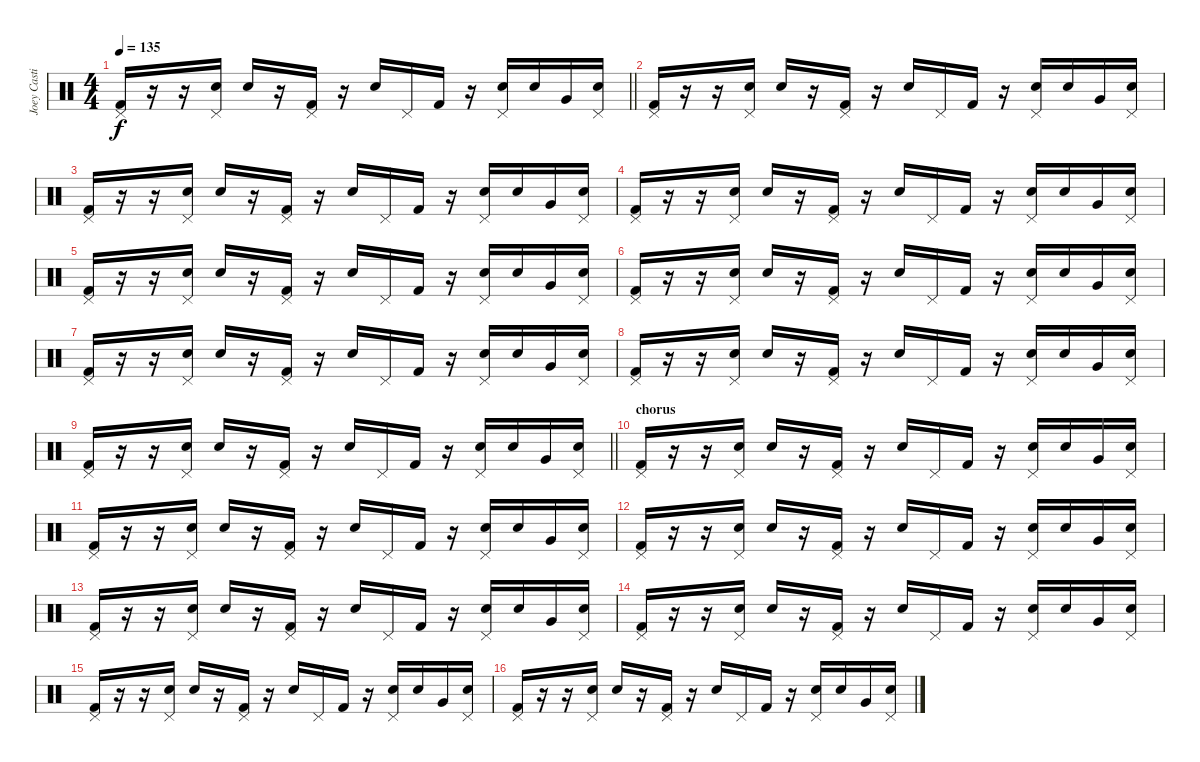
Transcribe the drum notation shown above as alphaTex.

\track ("Joey Castillo" "Joey Casti") {instrument percussion}
\staff {score}
\articulation defaults
\ts (4 4)
\tempo 135
\clef neutral
\barLineRight lightlight
\ks c
("Kick (hit) 2" "Pedal Hi-Hat (hit)").16{dy f} r.16 r.16 ("Electric Snare (hit)" "Pedal Hi-Hat (hit)").16 "Electric Snare (hit)".16 r.16 ("Kick (hit) 2" "Pedal Hi-Hat (hit)").16 r.16 "Electric Snare (hit)".16 "Pedal Hi-Hat (hit)".16 "Kick (hit) 2".16 r.16 ("Electric Snare (hit)" "Pedal Hi-Hat (hit)").16 "Electric Snare (hit)".16 "Very Low Tom (hit)".16 ("Electric Snare (hit)" "Pedal Hi-Hat (hit)").16 |
("Kick (hit) 2" "Pedal Hi-Hat (hit)").16 r.16 r.16 ("Electric Snare (hit)" "Pedal Hi-Hat (hit)").16 "Electric Snare (hit)".16 r.16 ("Kick (hit) 2" "Pedal Hi-Hat (hit)").16 r.16 "Electric Snare (hit)".16 "Pedal Hi-Hat (hit)".16 "Kick (hit) 2".16 r.16 ("Electric Snare (hit)" "Pedal Hi-Hat (hit)").16 "Electric Snare (hit)".16 "Very Low Tom (hit)".16 ("Electric Snare (hit)" "Pedal Hi-Hat (hit)").16 |
("Kick (hit) 2" "Pedal Hi-Hat (hit)").16 r.16 r.16 ("Electric Snare (hit)" "Pedal Hi-Hat (hit)").16 "Electric Snare (hit)".16 r.16 ("Kick (hit) 2" "Pedal Hi-Hat (hit)").16 r.16 "Electric Snare (hit)".16 "Pedal Hi-Hat (hit)".16 "Kick (hit) 2".16 r.16 ("Electric Snare (hit)" "Pedal Hi-Hat (hit)").16 "Electric Snare (hit)".16 "Very Low Tom (hit)".16 ("Electric Snare (hit)" "Pedal Hi-Hat (hit)").16 |
("Kick (hit) 2" "Pedal Hi-Hat (hit)").16 r.16 r.16 ("Electric Snare (hit)" "Pedal Hi-Hat (hit)").16 "Electric Snare (hit)".16 r.16 ("Kick (hit) 2" "Pedal Hi-Hat (hit)").16 r.16 "Electric Snare (hit)".16 "Pedal Hi-Hat (hit)".16 "Kick (hit) 2".16 r.16 ("Electric Snare (hit)" "Pedal Hi-Hat (hit)").16 "Electric Snare (hit)".16 "Very Low Tom (hit)".16 ("Electric Snare (hit)" "Pedal Hi-Hat (hit)").16 |
("Kick (hit) 2" "Pedal Hi-Hat (hit)").16 r.16 r.16 ("Electric Snare (hit)" "Pedal Hi-Hat (hit)").16 "Electric Snare (hit)".16 r.16 ("Kick (hit) 2" "Pedal Hi-Hat (hit)").16 r.16 "Electric Snare (hit)".16 "Pedal Hi-Hat (hit)".16 "Kick (hit) 2".16 r.16 ("Electric Snare (hit)" "Pedal Hi-Hat (hit)").16 "Electric Snare (hit)".16 "Very Low Tom (hit)".16 ("Electric Snare (hit)" "Pedal Hi-Hat (hit)").16 |
("Kick (hit) 2" "Pedal Hi-Hat (hit)").16 r.16 r.16 ("Electric Snare (hit)" "Pedal Hi-Hat (hit)").16 "Electric Snare (hit)".16 r.16 ("Kick (hit) 2" "Pedal Hi-Hat (hit)").16 r.16 "Electric Snare (hit)".16 "Pedal Hi-Hat (hit)".16 "Kick (hit) 2".16 r.16 ("Electric Snare (hit)" "Pedal Hi-Hat (hit)").16 "Electric Snare (hit)".16 "Very Low Tom (hit)".16 ("Electric Snare (hit)" "Pedal Hi-Hat (hit)").16 |
("Kick (hit) 2" "Pedal Hi-Hat (hit)").16 r.16 r.16 ("Electric Snare (hit)" "Pedal Hi-Hat (hit)").16 "Electric Snare (hit)".16 r.16 ("Kick (hit) 2" "Pedal Hi-Hat (hit)").16 r.16 "Electric Snare (hit)".16 "Pedal Hi-Hat (hit)".16 "Kick (hit) 2".16 r.16 ("Electric Snare (hit)" "Pedal Hi-Hat (hit)").16 "Electric Snare (hit)".16 "Very Low Tom (hit)".16 ("Electric Snare (hit)" "Pedal Hi-Hat (hit)").16 |
("Kick (hit) 2" "Pedal Hi-Hat (hit)").16 r.16 r.16 ("Electric Snare (hit)" "Pedal Hi-Hat (hit)").16 "Electric Snare (hit)".16 r.16 ("Kick (hit) 2" "Pedal Hi-Hat (hit)").16 r.16 "Electric Snare (hit)".16 "Pedal Hi-Hat (hit)".16 "Kick (hit) 2".16 r.16 ("Electric Snare (hit)" "Pedal Hi-Hat (hit)").16 "Electric Snare (hit)".16 "Very Low Tom (hit)".16 ("Electric Snare (hit)" "Pedal Hi-Hat (hit)").16 |
\barLineRight lightlight
("Kick (hit) 2" "Pedal Hi-Hat (hit)").16 r.16 r.16 ("Electric Snare (hit)" "Pedal Hi-Hat (hit)").16 "Electric Snare (hit)".16 r.16 ("Kick (hit) 2" "Pedal Hi-Hat (hit)").16 r.16 "Electric Snare (hit)".16 "Pedal Hi-Hat (hit)".16 "Kick (hit) 2".16 r.16 ("Electric Snare (hit)" "Pedal Hi-Hat (hit)").16 "Electric Snare (hit)".16 "Very Low Tom (hit)".16 ("Electric Snare (hit)" "Pedal Hi-Hat (hit)").16 |
\section ("" "chorus")
("Kick (hit) 2" "Pedal Hi-Hat (hit)").16 r.16 r.16 ("Electric Snare (hit)" "Pedal Hi-Hat (hit)").16 "Electric Snare (hit)".16 r.16 ("Kick (hit) 2" "Pedal Hi-Hat (hit)").16 r.16 "Electric Snare (hit)".16 "Pedal Hi-Hat (hit)".16 "Kick (hit) 2".16 r.16 ("Electric Snare (hit)" "Pedal Hi-Hat (hit)").16 "Electric Snare (hit)".16 "Very Low Tom (hit)".16 ("Electric Snare (hit)" "Pedal Hi-Hat (hit)").16 |
("Kick (hit) 2" "Pedal Hi-Hat (hit)").16 r.16 r.16 ("Electric Snare (hit)" "Pedal Hi-Hat (hit)").16 "Electric Snare (hit)".16 r.16 ("Kick (hit) 2" "Pedal Hi-Hat (hit)").16 r.16 "Electric Snare (hit)".16 "Pedal Hi-Hat (hit)".16 "Kick (hit) 2".16 r.16 ("Electric Snare (hit)" "Pedal Hi-Hat (hit)").16 "Electric Snare (hit)".16 "Very Low Tom (hit)".16 ("Electric Snare (hit)" "Pedal Hi-Hat (hit)").16 |
("Kick (hit) 2" "Pedal Hi-Hat (hit)").16 r.16 r.16 ("Electric Snare (hit)" "Pedal Hi-Hat (hit)").16 "Electric Snare (hit)".16 r.16 ("Kick (hit) 2" "Pedal Hi-Hat (hit)").16 r.16 "Electric Snare (hit)".16 "Pedal Hi-Hat (hit)".16 "Kick (hit) 2".16 r.16 ("Electric Snare (hit)" "Pedal Hi-Hat (hit)").16 "Electric Snare (hit)".16 "Very Low Tom (hit)".16 ("Electric Snare (hit)" "Pedal Hi-Hat (hit)").16 |
("Kick (hit) 2" "Pedal Hi-Hat (hit)").16 r.16 r.16 ("Electric Snare (hit)" "Pedal Hi-Hat (hit)").16 "Electric Snare (hit)".16 r.16 ("Kick (hit) 2" "Pedal Hi-Hat (hit)").16 r.16 "Electric Snare (hit)".16 "Pedal Hi-Hat (hit)".16 "Kick (hit) 2".16 r.16 ("Electric Snare (hit)" "Pedal Hi-Hat (hit)").16 "Electric Snare (hit)".16 "Very Low Tom (hit)".16 ("Electric Snare (hit)" "Pedal Hi-Hat (hit)").16 |
("Kick (hit) 2" "Pedal Hi-Hat (hit)").16 r.16 r.16 ("Electric Snare (hit)" "Pedal Hi-Hat (hit)").16 "Electric Snare (hit)".16 r.16 ("Kick (hit) 2" "Pedal Hi-Hat (hit)").16 r.16 "Electric Snare (hit)".16 "Pedal Hi-Hat (hit)".16 "Kick (hit) 2".16 r.16 ("Electric Snare (hit)" "Pedal Hi-Hat (hit)").16 "Electric Snare (hit)".16 "Very Low Tom (hit)".16 ("Electric Snare (hit)" "Pedal Hi-Hat (hit)").16 |
("Kick (hit) 2" "Pedal Hi-Hat (hit)").16 r.16 r.16 ("Electric Snare (hit)" "Pedal Hi-Hat (hit)").16 "Electric Snare (hit)".16 r.16 ("Kick (hit) 2" "Pedal Hi-Hat (hit)").16 r.16 "Electric Snare (hit)".16 "Pedal Hi-Hat (hit)".16 "Kick (hit) 2".16 r.16 ("Electric Snare (hit)" "Pedal Hi-Hat (hit)").16 "Electric Snare (hit)".16 "Very Low Tom (hit)".16 ("Electric Snare (hit)" "Pedal Hi-Hat (hit)").16 |
("Kick (hit) 2" "Pedal Hi-Hat (hit)").16 r.16 r.16 ("Electric Snare (hit)" "Pedal Hi-Hat (hit)").16 "Electric Snare (hit)".16 r.16 ("Kick (hit) 2" "Pedal Hi-Hat (hit)").16 r.16 "Electric Snare (hit)".16 "Pedal Hi-Hat (hit)".16 "Kick (hit) 2".16 r.16 ("Electric Snare (hit)" "Pedal Hi-Hat (hit)").16 "Electric Snare (hit)".16 "Very Low Tom (hit)".16 ("Electric Snare (hit)" "Pedal Hi-Hat (hit)").16
